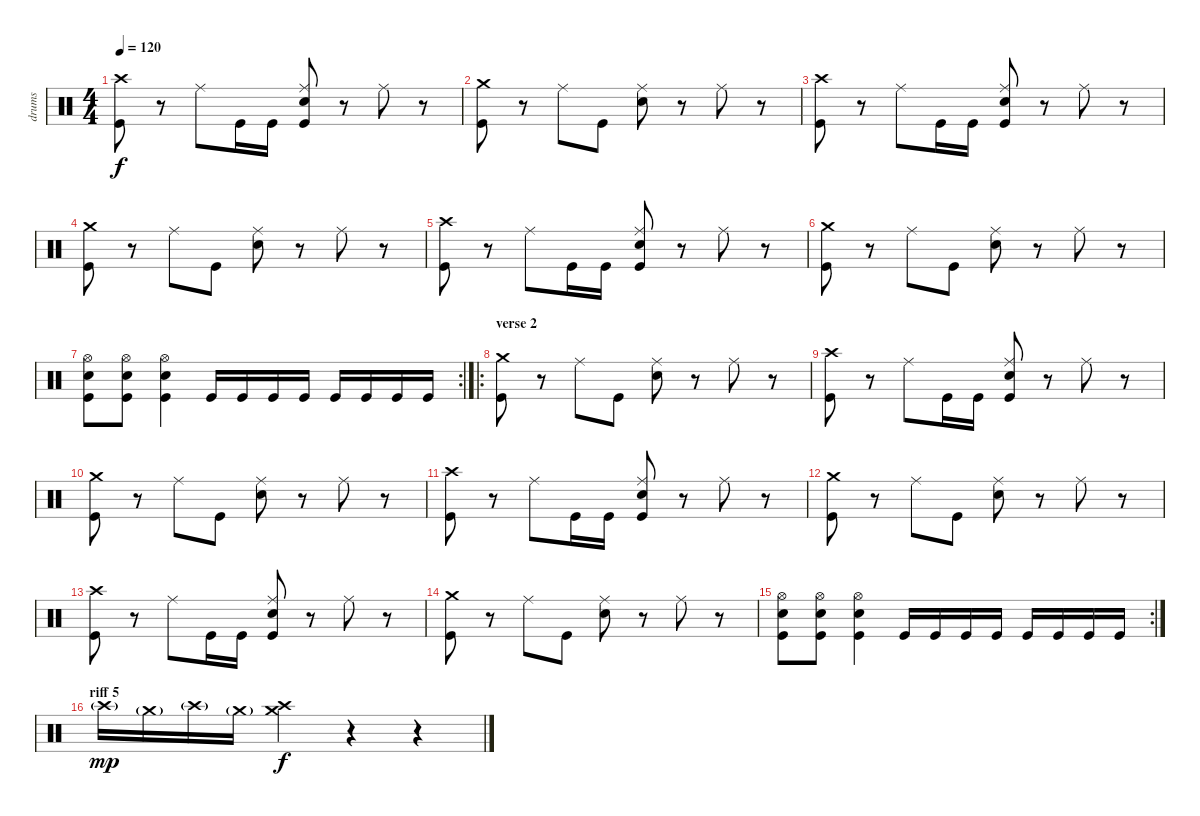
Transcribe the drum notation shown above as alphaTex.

\track ("drums" "drums") {instrument percussion}
\staff {score}
\articulation defaults
\ts (4 4)
\tempo 120
\clef neutral
\ks c
("Kick (hit)" "Crash high (hit)").8{dy f} r.8 "Ride (middle)".8 "Kick (hit)".16 "Kick (hit)".16 ("Kick (hit)" "Snare (hit) 2" "Ride (middle)").8 r.8 "Ride (middle)".8 r.8 |
("Kick (hit)" "Crash medium (hit)").8 r.8 "Ride (middle)".8 "Kick (hit)".8 ("Snare (hit) 2" "Ride (middle)").8 r.8 "Ride (middle)".8 r.8 |
("Kick (hit)" "Crash high (hit)").8 r.8 "Ride (middle)".8 "Kick (hit)".16 "Kick (hit)".16 ("Kick (hit)" "Snare (hit) 2" "Ride (middle)").8 r.8 "Ride (middle)".8 r.8 |
("Kick (hit)" "Crash medium (hit)").8 r.8 "Ride (middle)".8 "Kick (hit)".8 ("Snare (hit) 2" "Ride (middle)").8 r.8 "Ride (middle)".8 r.8 |
("Kick (hit)" "Crash high (hit)").8 r.8 "Ride (middle)".8 "Kick (hit)".16 "Kick (hit)".16 ("Kick (hit)" "Snare (hit) 2" "Ride (middle)").8 r.8 "Ride (middle)".8 r.8 |
("Kick (hit)" "Crash medium (hit)").8 r.8 "Ride (middle)".8 "Kick (hit)".8 ("Snare (hit) 2" "Ride (middle)").8 r.8 "Ride (middle)".8 r.8 |
\rc 2
("Kick (hit)" "Snare (hit) 2" "Hi-Hat (open)").8 ("Kick (hit)" "Snare (hit) 2" "Hi-Hat (open)").8 ("Kick (hit)" "Snare (hit) 2" "Hi-Hat (open)").4 "Kick (hit)".16 "Kick (hit)".16 "Kick (hit)".16 "Kick (hit)".16 "Kick (hit)".16 "Kick (hit)".16 "Kick (hit)".16 "Kick (hit)".16 |
\ro
\section ("" "verse 2")
("Kick (hit)" "Crash medium (hit)").8 r.8 "Ride (middle)".8 "Kick (hit)".8 ("Snare (hit) 2" "Ride (middle)").8 r.8 "Ride (middle)".8 r.8 |
("Kick (hit)" "Crash high (hit)").8 r.8 "Ride (middle)".8 "Kick (hit)".16 "Kick (hit)".16 ("Kick (hit)" "Snare (hit) 2" "Ride (middle)").8 r.8 "Ride (middle)".8 r.8 |
("Kick (hit)" "Crash medium (hit)").8 r.8 "Ride (middle)".8 "Kick (hit)".8 ("Snare (hit) 2" "Ride (middle)").8 r.8 "Ride (middle)".8 r.8 |
("Kick (hit)" "Crash high (hit)").8 r.8 "Ride (middle)".8 "Kick (hit)".16 "Kick (hit)".16 ("Kick (hit)" "Snare (hit) 2" "Ride (middle)").8 r.8 "Ride (middle)".8 r.8 |
("Kick (hit)" "Crash medium (hit)").8 r.8 "Ride (middle)".8 "Kick (hit)".8 ("Snare (hit) 2" "Ride (middle)").8 r.8 "Ride (middle)".8 r.8 |
("Kick (hit)" "Crash high (hit)").8 r.8 "Ride (middle)".8 "Kick (hit)".16 "Kick (hit)".16 ("Kick (hit)" "Snare (hit) 2" "Ride (middle)").8 r.8 "Ride (middle)".8 r.8 |
("Kick (hit)" "Crash medium (hit)").8 r.8 "Ride (middle)".8 "Kick (hit)".8 ("Snare (hit) 2" "Ride (middle)").8 r.8 "Ride (middle)".8 r.8 |
\rc 2
("Kick (hit)" "Snare (hit) 2" "Hi-Hat (open)").8 ("Kick (hit)" "Snare (hit) 2" "Hi-Hat (open)").8 ("Kick (hit)" "Snare (hit) 2" "Hi-Hat (open)").4 "Kick (hit)".16 "Kick (hit)".16 "Kick (hit)".16 "Kick (hit)".16 "Kick (hit)".16 "Kick (hit)".16 "Kick (hit)".16 "Kick (hit)".16 |
\section ("" "riff 5")
"Crash high (hit)"{g}.16{dy mp} "Crash medium (hit)"{g}.16 "Crash high (hit)"{g}.16 "Crash medium (hit)"{g}.16 ("Crash medium (hit)" "Crash high (hit)").4{dy f} r.4 r.4
